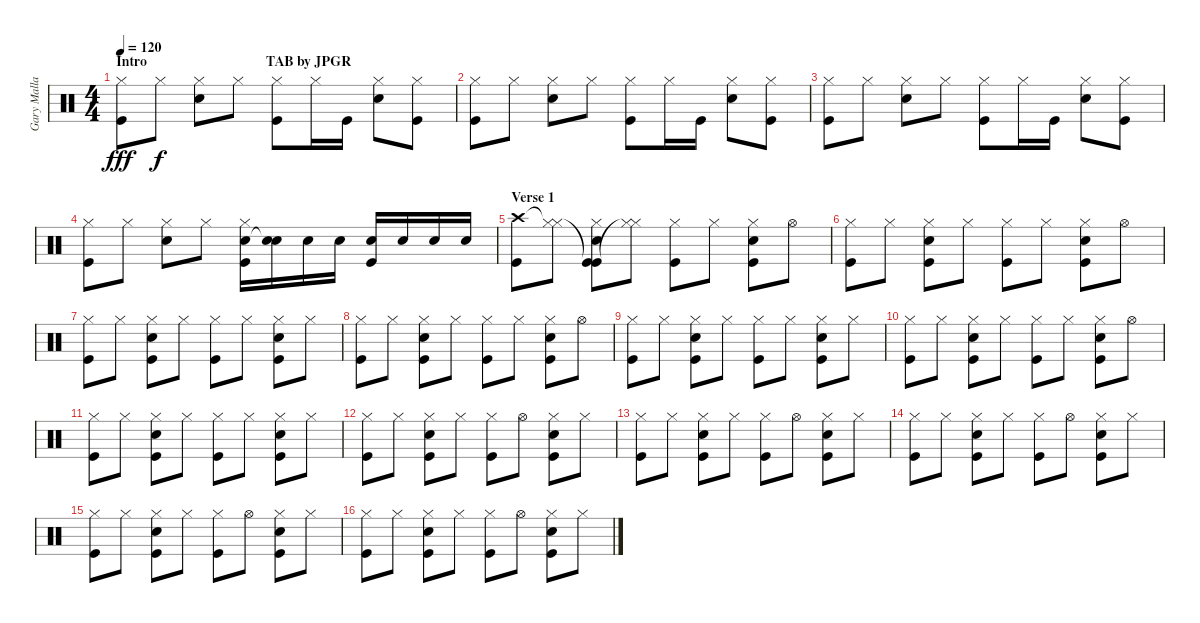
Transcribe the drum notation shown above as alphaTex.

\track ("Gary Mallaber" "Gary Malla") {instrument percussion}
\staff {score}
\articulation defaults
\ts (4 4)
\section ("" "Intro                                  TAB by JPGR")
\tempo 120
\clef neutral
\ks c
("Hi-Hat (closed)" "Kick (hit)").8{dy fff} "Hi-Hat (closed)".8{dy f} ("Hi-Hat (closed)" "Snare (hit) 2").8 "Hi-Hat (closed)".8 ("Hi-Hat (closed)" "Kick (hit)").8 "Hi-Hat (closed)".16 "Kick (hit)".16 ("Hi-Hat (closed)" "Snare (hit) 2").8 ("Hi-Hat (closed)" "Kick (hit)").8 |
("Hi-Hat (closed)" "Kick (hit)").8 "Hi-Hat (closed)".8 ("Hi-Hat (closed)" "Snare (hit) 2").8 "Hi-Hat (closed)".8 ("Hi-Hat (closed)" "Kick (hit)").8 "Hi-Hat (closed)".16 "Kick (hit)".16 ("Hi-Hat (closed)" "Snare (hit) 2").8 ("Hi-Hat (closed)" "Kick (hit)").8 |
("Hi-Hat (closed)" "Kick (hit)").8 "Hi-Hat (closed)".8 ("Hi-Hat (closed)" "Snare (hit) 2").8 "Hi-Hat (closed)".8 ("Hi-Hat (closed)" "Kick (hit)").8 "Hi-Hat (closed)".16 "Kick (hit)".16 ("Hi-Hat (closed)" "Snare (hit) 2").8 ("Hi-Hat (closed)" "Kick (hit)").8 |
("Hi-Hat (closed)" "Kick (hit)").8 "Hi-Hat (closed)".8 ("Hi-Hat (closed)" "Snare (hit) 2").8 "Hi-Hat (closed)".8 ("Hi-Hat (closed)" "Snare (hit) 2" "Kick (hit)").16 ("Snare (hit) 2" "Snare (hit)"{t}).16 "Snare (hit) 2".16 "Snare (hit) 2".16 ("Snare (hit) 2" "Kick (hit)").16 "Snare (hit) 2".16 "Snare (hit) 2".16 "Snare (hit) 2".16 |
\section ("" "Verse 1")
("Crash high (hit)" "Kick (hit)").8 ("Hi-Hat (closed)"{t} "Hi-Hat (closed)").8 ("Kick (hit)"{t} "Hi-Hat (closed)" "Snare (hit) 2" "Kick (hit)").8 ("Hi-Hat (closed)"{t} "Hi-Hat (closed)").8 ("Hi-Hat (closed)" "Kick (hit)").8 "Hi-Hat (closed)".8 ("Hi-Hat (closed)" "Snare (hit) 2" "Kick (hit)").8 "Hi-Hat (open)".8 |
("Hi-Hat (closed)" "Kick (hit)").8 "Hi-Hat (closed)".8 ("Hi-Hat (closed)" "Snare (hit) 2" "Kick (hit)").8 "Hi-Hat (closed)".8 ("Hi-Hat (closed)" "Kick (hit)").8 "Hi-Hat (closed)".8 ("Hi-Hat (closed)" "Snare (hit) 2" "Kick (hit)").8 "Hi-Hat (open)".8 |
("Hi-Hat (closed)" "Kick (hit)").8 "Hi-Hat (closed)".8 ("Hi-Hat (closed)" "Snare (hit) 2" "Kick (hit)").8 "Hi-Hat (closed)".8 ("Hi-Hat (closed)" "Kick (hit)").8 "Hi-Hat (closed)".8 ("Hi-Hat (closed)" "Snare (hit) 2" "Kick (hit)").8 "Hi-Hat (closed)".8 |
("Hi-Hat (closed)" "Kick (hit)").8 "Hi-Hat (closed)".8 ("Hi-Hat (closed)" "Snare (hit) 2" "Kick (hit)").8 "Hi-Hat (closed)".8 ("Hi-Hat (closed)" "Kick (hit)").8 "Hi-Hat (closed)".8 ("Hi-Hat (closed)" "Snare (hit) 2" "Kick (hit)").8 "Hi-Hat (open)".8 |
("Hi-Hat (closed)" "Kick (hit)").8 "Hi-Hat (closed)".8 ("Hi-Hat (closed)" "Snare (hit) 2" "Kick (hit)").8 "Hi-Hat (closed)".8 ("Hi-Hat (closed)" "Kick (hit)").8 "Hi-Hat (closed)".8 ("Hi-Hat (closed)" "Snare (hit) 2" "Kick (hit)").8 "Hi-Hat (closed)".8 |
("Hi-Hat (closed)" "Kick (hit)").8 "Hi-Hat (closed)".8 ("Hi-Hat (closed)" "Snare (hit) 2" "Kick (hit)").8 "Hi-Hat (closed)".8 ("Hi-Hat (closed)" "Kick (hit)").8 "Hi-Hat (closed)".8 ("Hi-Hat (closed)" "Snare (hit) 2" "Kick (hit)").8 "Hi-Hat (open)".8 |
("Hi-Hat (closed)" "Kick (hit)").8 "Hi-Hat (closed)".8 ("Hi-Hat (closed)" "Snare (hit) 2" "Kick (hit)").8 "Hi-Hat (closed)".8 ("Hi-Hat (closed)" "Kick (hit)").8 "Hi-Hat (closed)".8 ("Hi-Hat (closed)" "Snare (hit) 2" "Kick (hit)").8 "Hi-Hat (closed)".8 |
("Hi-Hat (closed)" "Kick (hit)").8 "Hi-Hat (closed)".8 ("Hi-Hat (closed)" "Snare (hit) 2" "Kick (hit)").8 "Hi-Hat (closed)".8 ("Hi-Hat (closed)" "Kick (hit)").8 "Hi-Hat (open)".8 ("Hi-Hat (closed)" "Snare (hit) 2" "Kick (hit)").8 "Hi-Hat (closed)".8 |
("Hi-Hat (closed)" "Kick (hit)").8 "Hi-Hat (closed)".8 ("Hi-Hat (closed)" "Snare (hit) 2" "Kick (hit)").8 "Hi-Hat (closed)".8 ("Hi-Hat (closed)" "Kick (hit)").8 "Hi-Hat (open)".8 ("Hi-Hat (closed)" "Snare (hit) 2" "Kick (hit)").8 "Hi-Hat (closed)".8 |
("Hi-Hat (closed)" "Kick (hit)").8 "Hi-Hat (closed)".8 ("Hi-Hat (closed)" "Snare (hit) 2" "Kick (hit)").8 "Hi-Hat (closed)".8 ("Hi-Hat (closed)" "Kick (hit)").8 "Hi-Hat (open)".8 ("Hi-Hat (closed)" "Snare (hit) 2" "Kick (hit)").8 "Hi-Hat (closed)".8 |
("Hi-Hat (closed)" "Kick (hit)").8 "Hi-Hat (closed)".8 ("Hi-Hat (closed)" "Snare (hit) 2" "Kick (hit)").8 "Hi-Hat (closed)".8 ("Hi-Hat (closed)" "Kick (hit)").8 "Hi-Hat (open)".8 ("Hi-Hat (closed)" "Snare (hit) 2" "Kick (hit)").8 "Hi-Hat (closed)".8 |
("Hi-Hat (closed)" "Kick (hit)").8 "Hi-Hat (closed)".8 ("Hi-Hat (closed)" "Snare (hit) 2" "Kick (hit)").8 "Hi-Hat (closed)".8 ("Hi-Hat (closed)" "Kick (hit)").8 "Hi-Hat (open)".8 ("Hi-Hat (closed)" "Snare (hit) 2" "Kick (hit)").8 "Hi-Hat (closed)".8
